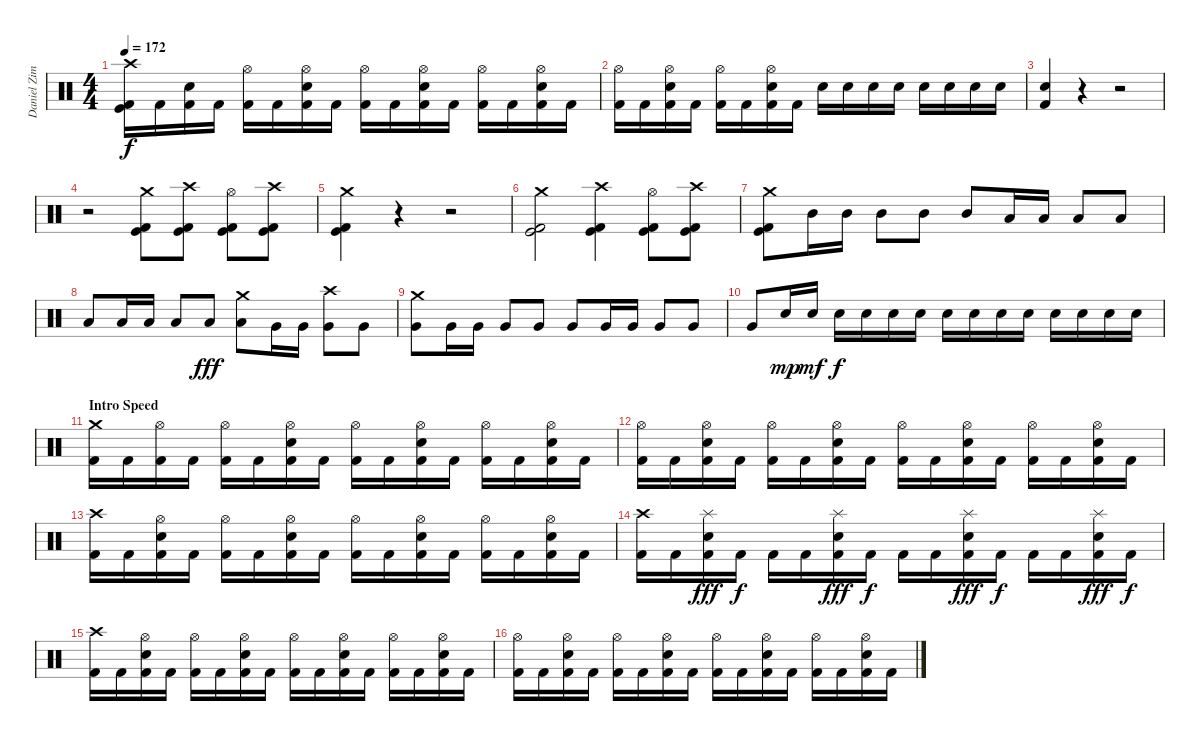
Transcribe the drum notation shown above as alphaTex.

\track ("Daniel Zimmermann - Drums" "Daniel Zim") {instrument percussion}
\staff {score}
\articulation defaults
\ts (4 4)
\tempo 172
\clef neutral
\ks c
("Kick (hit) 2" "Kick (hit)" "Crash high (hit)").16{dy f} "Kick (hit) 2".16 ("Kick (hit) 2" "Electric Snare (hit)").16 "Kick (hit) 2".16 ("Kick (hit) 2" "Hi-Hat (open)").16 "Kick (hit) 2".16 ("Kick (hit) 2" "Electric Snare (hit)" "Hi-Hat (open)").16 "Kick (hit) 2".16 ("Kick (hit) 2" "Hi-Hat (open)").16 "Kick (hit) 2".16 ("Kick (hit) 2" "Electric Snare (hit)" "Hi-Hat (open)").16 "Kick (hit) 2".16 ("Kick (hit) 2" "Hi-Hat (open)").16 "Kick (hit) 2".16 ("Kick (hit) 2" "Electric Snare (hit)" "Hi-Hat (open)").16 "Kick (hit) 2".16 |
("Kick (hit) 2" "Hi-Hat (open)").16 "Kick (hit) 2".16 ("Kick (hit) 2" "Electric Snare (hit)" "Hi-Hat (open)").16 "Kick (hit) 2".16 ("Kick (hit) 2" "Hi-Hat (open)").16 "Kick (hit) 2".16 ("Kick (hit) 2" "Electric Snare (hit)" "Hi-Hat (open)").16 "Kick (hit) 2".16 "Electric Snare (hit)".16 "Electric Snare (hit)".16 "Electric Snare (hit)".16 "Electric Snare (hit)".16 "Electric Snare (hit)".16 "Electric Snare (hit)".16 "Electric Snare (hit)".16 "Electric Snare (hit)".16 |
("Kick (hit) 2" "Electric Snare (hit)").4 r.4 r.2 |
r.2 ("Kick (hit) 2" "Kick (hit)" "Crash medium (hit)").8 ("Kick (hit) 2" "Kick (hit)" "Crash high (hit)").8 ("Kick (hit) 2" "Kick (hit)" "Hi-Hat (open)").8 ("Kick (hit) 2" "Kick (hit)" "Crash high (hit)").8 |
("Kick (hit) 2" "Kick (hit)" "Crash medium (hit)").4 r.4 r.2 |
("Kick (hit) 2" "Kick (hit)" "Crash medium (hit)").2 ("Kick (hit) 2" "Kick (hit)" "Crash high (hit)").4 ("Kick (hit) 2" "Kick (hit)" "Hi-Hat (open)").8 ("Kick (hit) 2" "Kick (hit)" "Crash high (hit)").8 |
("Kick (hit) 2" "Kick (hit)" "Crash medium (hit)").8 "Mid Tom (hit)".16 "Mid Tom (hit)".16 "Mid Tom (hit)".8 "Mid Tom (hit)".8 "Mid Tom (hit)".8 "Low Tom (hit)".16 "Low Tom (hit)".16 "Low Tom (hit)".8 "Low Tom (hit)".8 |
"Low Tom (hit)".8 "Low Tom (hit)".16 "Low Tom (hit)".16 "Low Tom (hit)".8 "Low Tom (hit)".8{dy fff} ("Crash medium (hit)" "Low Tom (hit)").8 "Very Low Tom (hit)".16 "Very Low Tom (hit)".16 ("Crash high (hit)" "Very Low Tom (hit)").8 "Very Low Tom (hit)".8 |
("Crash medium (hit)" "Very Low Tom (hit)").8 "Very Low Tom (hit)".16 "Very Low Tom (hit)".16 "Very Low Tom (hit)".8 "Very Low Tom (hit)".8 "Very Low Tom (hit)".8 "Very Low Tom (hit)".16 "Very Low Tom (hit)".16 "Very Low Tom (hit)".8 "Very Low Tom (hit)".8 |
"Very Low Tom (hit)".8 "Electric Snare (hit)".16{dy mp} "Electric Snare (hit)".16{dy mf} "Electric Snare (hit)".16{dy f} "Electric Snare (hit)".16 "Electric Snare (hit)".16 "Electric Snare (hit)".16 "Electric Snare (hit)".16 "Electric Snare (hit)".16 "Electric Snare (hit)".16 "Electric Snare (hit)".16 "Electric Snare (hit)".16 "Electric Snare (hit)".16 "Electric Snare (hit)".16 "Electric Snare (hit)".16 |
\section ("" "Intro Speed")
("Kick (hit) 2" "Crash medium (hit)").16 "Kick (hit) 2".16 ("Kick (hit) 2" "Hi-Hat (open)").16 "Kick (hit) 2".16 ("Kick (hit) 2" "Hi-Hat (open)").16 "Kick (hit) 2".16 ("Kick (hit) 2" "Electric Snare (hit)" "Hi-Hat (open)").16 "Kick (hit) 2".16 ("Kick (hit) 2" "Hi-Hat (open)").16 "Kick (hit) 2".16 ("Kick (hit) 2" "Electric Snare (hit)" "Hi-Hat (open)").16 "Kick (hit) 2".16 ("Kick (hit) 2" "Hi-Hat (open)").16 "Kick (hit) 2".16 ("Kick (hit) 2" "Electric Snare (hit)" "Hi-Hat (open)").16 "Kick (hit) 2".16 |
("Kick (hit) 2" "Hi-Hat (open)").16 "Kick (hit) 2".16 ("Kick (hit) 2" "Electric Snare (hit)" "Hi-Hat (open)").16 "Kick (hit) 2".16 ("Kick (hit) 2" "Hi-Hat (open)").16 "Kick (hit) 2".16 ("Kick (hit) 2" "Electric Snare (hit)" "Hi-Hat (open)").16 "Kick (hit) 2".16 ("Kick (hit) 2" "Hi-Hat (open)").16 "Kick (hit) 2".16 ("Kick (hit) 2" "Electric Snare (hit)" "Hi-Hat (open)").16 "Kick (hit) 2".16 ("Kick (hit) 2" "Hi-Hat (open)").16 "Kick (hit) 2".16 ("Kick (hit) 2" "Electric Snare (hit)" "Hi-Hat (open)").16 "Kick (hit) 2".16 |
("Kick (hit) 2" "Crash high (hit)").16 "Kick (hit) 2".16 ("Kick (hit) 2" "Electric Snare (hit)" "Hi-Hat (open)").16 "Kick (hit) 2".16 ("Kick (hit) 2" "Hi-Hat (open)").16 "Kick (hit) 2".16 ("Kick (hit) 2" "Electric Snare (hit)" "Hi-Hat (open)").16 "Kick (hit) 2".16 ("Kick (hit) 2" "Hi-Hat (open)").16 "Kick (hit) 2".16 ("Kick (hit) 2" "Electric Snare (hit)" "Hi-Hat (open)").16 "Kick (hit) 2".16 ("Kick (hit) 2" "Hi-Hat (open)").16 "Kick (hit) 2".16 ("Kick (hit) 2" "Electric Snare (hit)" "Hi-Hat (open)").16 "Kick (hit) 2".16 |
("Kick (hit) 2" "Crash high (hit)").16 "Kick (hit) 2".16 ("Kick (hit) 2" "Electric Snare (hit)" "Splash (hit)").16{dy fff} "Kick (hit) 2".16{dy f} "Kick (hit) 2".16 "Kick (hit) 2".16 ("Kick (hit) 2" "Electric Snare (hit)" "Splash (hit)").16{dy fff} "Kick (hit) 2".16{dy f} "Kick (hit) 2".16 "Kick (hit) 2".16 ("Kick (hit) 2" "Electric Snare (hit)" "Splash (hit)").16{dy fff} "Kick (hit) 2".16{dy f} "Kick (hit) 2".16 "Kick (hit) 2".16 ("Kick (hit) 2" "Electric Snare (hit)" "Splash (hit)").16{dy fff} "Kick (hit) 2".16{dy f} |
("Kick (hit) 2" "Crash high (hit)").16 "Kick (hit) 2".16 ("Kick (hit) 2" "Electric Snare (hit)" "Hi-Hat (open)").16 "Kick (hit) 2".16 ("Kick (hit) 2" "Hi-Hat (open)").16 "Kick (hit) 2".16 ("Kick (hit) 2" "Electric Snare (hit)" "Hi-Hat (open)").16 "Kick (hit) 2".16 ("Kick (hit) 2" "Hi-Hat (open)").16 "Kick (hit) 2".16 ("Kick (hit) 2" "Electric Snare (hit)" "Hi-Hat (open)").16 "Kick (hit) 2".16 ("Kick (hit) 2" "Hi-Hat (open)").16 "Kick (hit) 2".16 ("Kick (hit) 2" "Electric Snare (hit)" "Hi-Hat (open)").16 "Kick (hit) 2".16 |
("Kick (hit) 2" "Hi-Hat (open)").16 "Kick (hit) 2".16 ("Kick (hit) 2" "Electric Snare (hit)" "Hi-Hat (open)").16 "Kick (hit) 2".16 ("Kick (hit) 2" "Hi-Hat (open)").16 "Kick (hit) 2".16 ("Kick (hit) 2" "Electric Snare (hit)" "Hi-Hat (open)").16 "Kick (hit) 2".16 ("Kick (hit) 2" "Hi-Hat (open)").16 "Kick (hit) 2".16 ("Kick (hit) 2" "Electric Snare (hit)" "Hi-Hat (open)").16 "Kick (hit) 2".16 ("Kick (hit) 2" "Hi-Hat (open)").16 "Kick (hit) 2".16 ("Kick (hit) 2" "Electric Snare (hit)" "Hi-Hat (open)").16 "Kick (hit) 2".16
